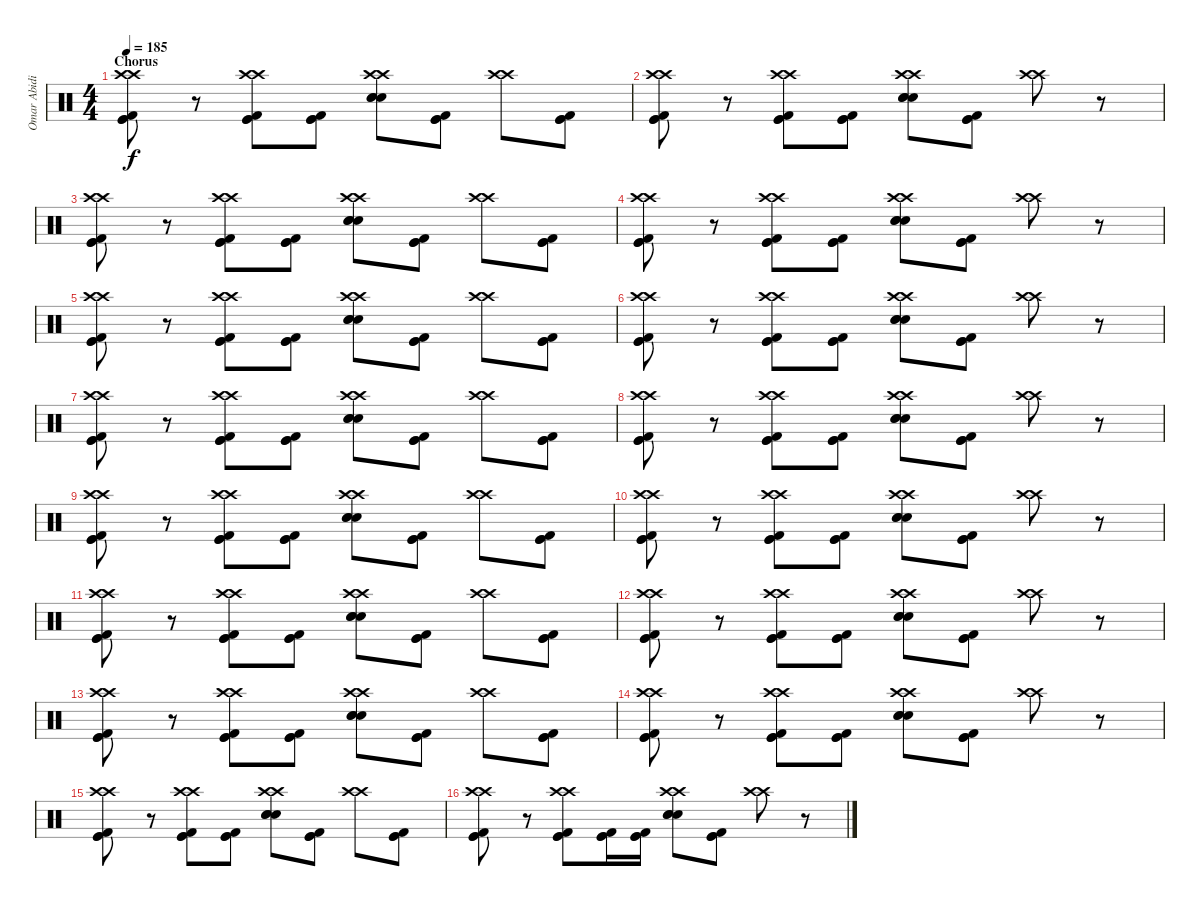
\track ("Omar Abidi" "Omar Abidi") {instrument percussion}
\staff {score}
\articulation defaults
\ts (4 4)
\section ("" "Chorus")
\tempo 185
\clef neutral
\ks c
("Crash high (hit)" "Crash high (hit)" "Kick (hit) 2" "Kick (hit)" "Kick (hit)").8{dy f} r.8 ("Crash high (hit)" "Crash high (hit)" "Kick (hit) 2" "Kick (hit)" "Kick (hit)").8 ("Kick (hit) 2" "Kick (hit)" "Kick (hit)").8 ("Crash high (hit)" "Crash high (hit)" "Snare (hit) 2" "Electric Snare (hit)" "Snare (hit) 2").8 ("Kick (hit) 2" "Kick (hit)" "Kick (hit)").8 ("Crash high (hit)" "Crash high (hit)").8 ("Kick (hit) 2" "Kick (hit)" "Kick (hit)").8 |
("Crash high (hit)" "Crash high (hit)" "Kick (hit) 2" "Kick (hit)" "Kick (hit)").8 r.8 ("Crash high (hit)" "Crash high (hit)" "Kick (hit) 2" "Kick (hit)" "Kick (hit)").8 ("Kick (hit) 2" "Kick (hit)" "Kick (hit)").8 ("Crash high (hit)" "Crash high (hit)" "Snare (hit) 2" "Snare (hit) 2" "Electric Snare (hit)").8 ("Kick (hit) 2" "Kick (hit)" "Kick (hit)").8 ("Crash high (hit)" "Crash high (hit)").8 r.8 |
("Crash high (hit)" "Crash high (hit)" "Kick (hit) 2" "Kick (hit)" "Kick (hit)").8 r.8 ("Crash high (hit)" "Crash high (hit)" "Kick (hit) 2" "Kick (hit)" "Kick (hit)").8 ("Kick (hit) 2" "Kick (hit)" "Kick (hit)").8 ("Crash high (hit)" "Crash high (hit)" "Snare (hit) 2" "Electric Snare (hit)" "Snare (hit) 2").8 ("Kick (hit) 2" "Kick (hit)" "Kick (hit)").8 ("Crash high (hit)" "Crash high (hit)").8 ("Kick (hit) 2" "Kick (hit)" "Kick (hit)").8 |
("Crash high (hit)" "Crash high (hit)" "Kick (hit) 2" "Kick (hit)" "Kick (hit)").8 r.8 ("Crash high (hit)" "Crash high (hit)" "Kick (hit) 2" "Kick (hit)" "Kick (hit)").8 ("Kick (hit) 2" "Kick (hit)" "Kick (hit)").8 ("Crash high (hit)" "Crash high (hit)" "Snare (hit) 2" "Snare (hit) 2" "Electric Snare (hit)").8 ("Kick (hit) 2" "Kick (hit)" "Kick (hit)").8 ("Crash high (hit)" "Crash high (hit)").8 r.8 |
("Crash high (hit)" "Crash high (hit)" "Kick (hit) 2" "Kick (hit)" "Kick (hit)").8 r.8 ("Crash high (hit)" "Crash high (hit)" "Kick (hit) 2" "Kick (hit)" "Kick (hit)").8 ("Kick (hit) 2" "Kick (hit)" "Kick (hit)").8 ("Crash high (hit)" "Crash high (hit)" "Snare (hit) 2" "Electric Snare (hit)" "Snare (hit) 2").8 ("Kick (hit) 2" "Kick (hit)" "Kick (hit)").8 ("Crash high (hit)" "Crash high (hit)").8 ("Kick (hit) 2" "Kick (hit)" "Kick (hit)").8 |
("Crash high (hit)" "Crash high (hit)" "Kick (hit) 2" "Kick (hit)" "Kick (hit)").8 r.8 ("Crash high (hit)" "Crash high (hit)" "Kick (hit) 2" "Kick (hit)" "Kick (hit)").8 ("Kick (hit) 2" "Kick (hit)" "Kick (hit)").8 ("Crash high (hit)" "Crash high (hit)" "Snare (hit) 2" "Snare (hit) 2" "Electric Snare (hit)").8 ("Kick (hit) 2" "Kick (hit)" "Kick (hit)").8 ("Crash high (hit)" "Crash high (hit)").8 r.8 |
("Crash high (hit)" "Crash high (hit)" "Kick (hit) 2" "Kick (hit)" "Kick (hit)").8 r.8 ("Crash high (hit)" "Crash high (hit)" "Kick (hit) 2" "Kick (hit)" "Kick (hit)").8 ("Kick (hit) 2" "Kick (hit)" "Kick (hit)").8 ("Crash high (hit)" "Crash high (hit)" "Snare (hit) 2" "Electric Snare (hit)" "Snare (hit) 2").8 ("Kick (hit) 2" "Kick (hit)" "Kick (hit)").8 ("Crash high (hit)" "Crash high (hit)").8 ("Kick (hit) 2" "Kick (hit)" "Kick (hit)").8 |
("Crash high (hit)" "Crash high (hit)" "Kick (hit) 2" "Kick (hit)" "Kick (hit)").8 r.8 ("Crash high (hit)" "Crash high (hit)" "Kick (hit) 2" "Kick (hit)" "Kick (hit)").8 ("Kick (hit) 2" "Kick (hit)" "Kick (hit)").8 ("Crash high (hit)" "Crash high (hit)" "Snare (hit) 2" "Snare (hit) 2" "Electric Snare (hit)").8 ("Kick (hit) 2" "Kick (hit)" "Kick (hit)").8 ("Crash high (hit)" "Crash high (hit)").8 r.8 |
("Crash high (hit)" "Crash high (hit)" "Kick (hit) 2" "Kick (hit)" "Kick (hit)").8 r.8 ("Crash high (hit)" "Crash high (hit)" "Kick (hit) 2" "Kick (hit)" "Kick (hit)").8 ("Kick (hit) 2" "Kick (hit)" "Kick (hit)").8 ("Crash high (hit)" "Crash high (hit)" "Snare (hit) 2" "Electric Snare (hit)" "Snare (hit) 2").8 ("Kick (hit) 2" "Kick (hit)" "Kick (hit)").8 ("Crash high (hit)" "Crash high (hit)").8 ("Kick (hit) 2" "Kick (hit)" "Kick (hit)").8 |
("Crash high (hit)" "Crash high (hit)" "Kick (hit) 2" "Kick (hit)" "Kick (hit)").8 r.8 ("Crash high (hit)" "Crash high (hit)" "Kick (hit) 2" "Kick (hit)" "Kick (hit)").8 ("Kick (hit) 2" "Kick (hit)" "Kick (hit)").8 ("Crash high (hit)" "Crash high (hit)" "Snare (hit) 2" "Snare (hit) 2" "Electric Snare (hit)").8 ("Kick (hit) 2" "Kick (hit)" "Kick (hit)").8 ("Crash high (hit)" "Crash high (hit)").8 r.8 |
("Crash high (hit)" "Crash high (hit)" "Kick (hit) 2" "Kick (hit)" "Kick (hit)").8 r.8 ("Crash high (hit)" "Crash high (hit)" "Kick (hit) 2" "Kick (hit)" "Kick (hit)").8 ("Kick (hit) 2" "Kick (hit)" "Kick (hit)").8 ("Crash high (hit)" "Crash high (hit)" "Snare (hit) 2" "Electric Snare (hit)" "Snare (hit) 2").8 ("Kick (hit) 2" "Kick (hit)" "Kick (hit)").8 ("Crash high (hit)" "Crash high (hit)").8 ("Kick (hit) 2" "Kick (hit)" "Kick (hit)").8 |
("Crash high (hit)" "Crash high (hit)" "Kick (hit) 2" "Kick (hit)" "Kick (hit)").8 r.8 ("Crash high (hit)" "Crash high (hit)" "Kick (hit) 2" "Kick (hit)" "Kick (hit)").8 ("Kick (hit) 2" "Kick (hit)" "Kick (hit)").8 ("Crash high (hit)" "Crash high (hit)" "Snare (hit) 2" "Snare (hit) 2" "Electric Snare (hit)").8 ("Kick (hit) 2" "Kick (hit)" "Kick (hit)").8 ("Crash high (hit)" "Crash high (hit)").8 r.8 |
("Crash high (hit)" "Crash high (hit)" "Kick (hit) 2" "Kick (hit)" "Kick (hit)").8 r.8 ("Crash high (hit)" "Crash high (hit)" "Kick (hit) 2" "Kick (hit)" "Kick (hit)").8 ("Kick (hit) 2" "Kick (hit)" "Kick (hit)").8 ("Crash high (hit)" "Crash high (hit)" "Snare (hit) 2" "Electric Snare (hit)" "Snare (hit) 2").8 ("Kick (hit) 2" "Kick (hit)" "Kick (hit)").8 ("Crash high (hit)" "Crash high (hit)").8 ("Kick (hit) 2" "Kick (hit)" "Kick (hit)").8 |
("Crash high (hit)" "Crash high (hit)" "Kick (hit) 2" "Kick (hit)" "Kick (hit)").8 r.8 ("Crash high (hit)" "Crash high (hit)" "Kick (hit) 2" "Kick (hit)" "Kick (hit)").8 ("Kick (hit) 2" "Kick (hit)" "Kick (hit)").8 ("Crash high (hit)" "Crash high (hit)" "Snare (hit) 2" "Snare (hit) 2" "Electric Snare (hit)").8 ("Kick (hit) 2" "Kick (hit)" "Kick (hit)").8 ("Crash high (hit)" "Crash high (hit)").8 r.8 |
("Crash high (hit)" "Crash high (hit)" "Kick (hit) 2" "Kick (hit)" "Kick (hit)").8 r.8 ("Crash high (hit)" "Crash high (hit)" "Kick (hit) 2" "Kick (hit)" "Kick (hit)").8 ("Kick (hit) 2" "Kick (hit)" "Kick (hit)").8 ("Crash high (hit)" "Crash high (hit)" "Snare (hit) 2" "Electric Snare (hit)" "Snare (hit) 2").8 ("Kick (hit) 2" "Kick (hit)" "Kick (hit)").8 ("Crash high (hit)" "Crash high (hit)").8 ("Kick (hit) 2" "Kick (hit)" "Kick (hit)").8 |
("Crash high (hit)" "Crash high (hit)" "Kick (hit) 2" "Kick (hit)" "Kick (hit)").8 r.8 ("Crash high (hit)" "Crash high (hit)" "Kick (hit) 2" "Kick (hit)" "Kick (hit)").8 ("Kick (hit) 2" "Kick (hit)" "Kick (hit)").16 ("Kick (hit) 2" "Kick (hit)" "Kick (hit)").16 ("Crash high (hit)" "Crash high (hit)" "Snare (hit) 2" "Snare (hit) 2" "Electric Snare (hit)").8 ("Kick (hit) 2" "Kick (hit)" "Kick (hit)").8 ("Crash high (hit)" "Crash high (hit)").8 r.8
